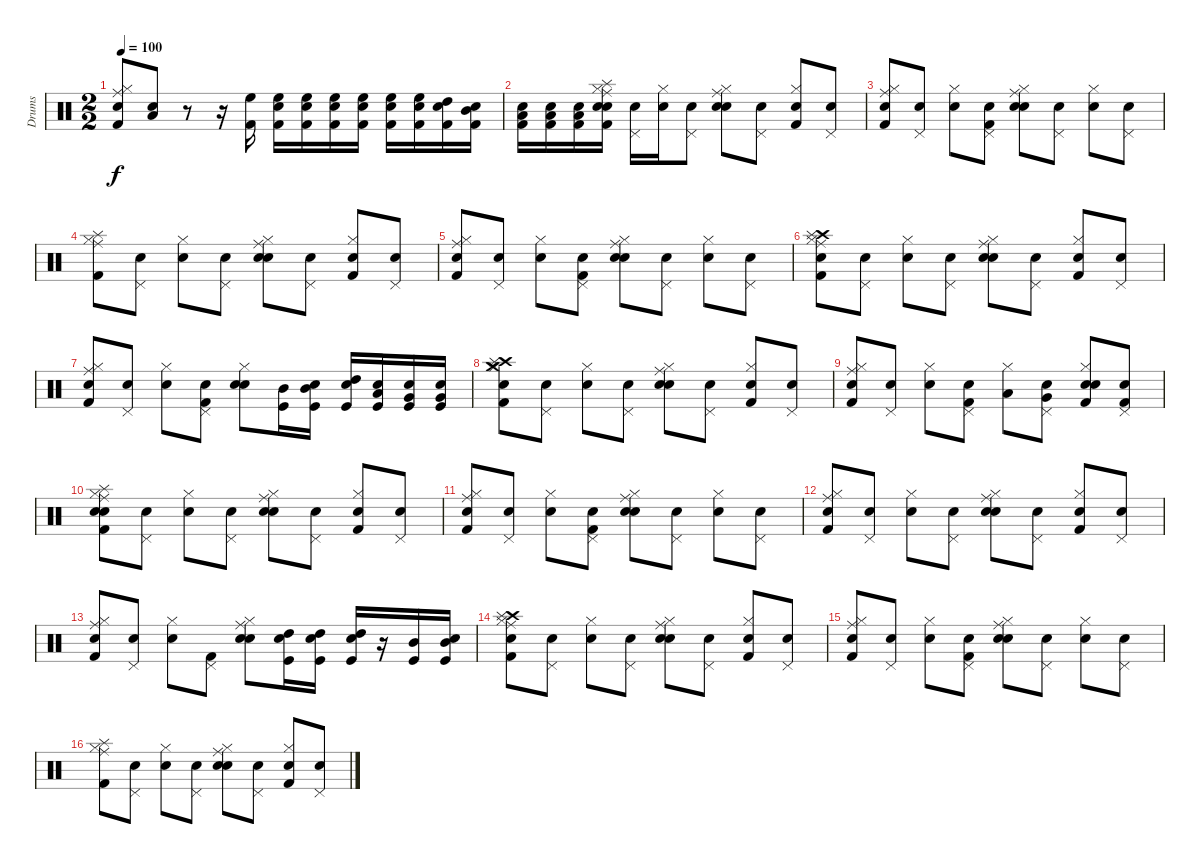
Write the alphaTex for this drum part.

\track ("Drums" "Drums") {instrument percussion}
\staff {score}
\articulation defaults
\ts (2 2)
\tempo 100
\clef neutral
\ks c
("Snare (hit)" "Ride (middle)" "Hi-Hat (closed)" "Kick (hit) 2").8{dy f} ("Snare (hit)" "Low Tom (hit)").8 r.8 r.16 ("Kick (hit) 2" "High Floor Tom (hit)").16 ("Snare (hit)" "Kick (hit) 2" "High Floor Tom (hit)").16 ("Snare (hit)" "Kick (hit) 2" "High Floor Tom (hit)").16 ("Snare (hit)" "Kick (hit) 2" "High Floor Tom (hit)").16 ("Snare (hit)" "Kick (hit) 2" "High Floor Tom (hit)").16 ("Snare (hit)" "Kick (hit) 2" "High Floor Tom (hit)").16 ("Snare (hit)" "Kick (hit) 2" "High Floor Tom (hit)").16 ("Snare (hit)" "Kick (hit) 2" "High Tom (hit)").16 ("Snare (hit)" "Kick (hit) 2" "Mid Tom (hit)").16 |
("Snare (hit)" "Kick (hit) 2" "Low Tom (hit)").16 ("Snare (hit)" "Kick (hit) 2" "Low Tom (hit)").16 ("Snare (hit)" "Low Floor Tom (hit)" "Kick (hit) 2").16 ("Snare (hit)" "Ride (middle)" "Hi-Hat (closed)" "Kick (hit) 2" "Snare (hit) 2" "Splash (hit)").16 ("Snare (hit)" "Pedal Hi-Hat (hit)").16 ("Snare (hit)" "Hi-Hat (closed)").16 ("Snare (hit)" "Pedal Hi-Hat (hit)").8 ("Snare (hit)" "Ride (middle)" "Hi-Hat (closed)" "Snare (hit) 2").8 ("Snare (hit)" "Pedal Hi-Hat (hit)").8 ("Snare (hit)" "Hi-Hat (closed)" "Kick (hit) 2").8 ("Snare (hit)" "Pedal Hi-Hat (hit)").8 |
("Snare (hit)" "Ride (middle)" "Hi-Hat (closed)" "Kick (hit) 2").8 ("Snare (hit)" "Pedal Hi-Hat (hit)").8 ("Snare (hit)" "Hi-Hat (closed)").8 ("Snare (hit)" "Pedal Hi-Hat (hit)" "Kick (hit) 2").8 ("Snare (hit)" "Ride (middle)" "Hi-Hat (closed)" "Snare (hit) 2").8 ("Snare (hit)" "Pedal Hi-Hat (hit)").8 ("Snare (hit)" "Hi-Hat (closed)").8 ("Snare (hit)" "Pedal Hi-Hat (hit)").8 |
("Splash (hit)" "Kick (hit) 2" "Ride (middle)" "Hi-Hat (closed)").8 ("Snare (hit)" "Pedal Hi-Hat (hit)").8 ("Snare (hit)" "Hi-Hat (closed)").8 ("Snare (hit)" "Pedal Hi-Hat (hit)").8 ("Snare (hit)" "Ride (middle)" "Hi-Hat (closed)" "Snare (hit) 2").8 ("Snare (hit)" "Pedal Hi-Hat (hit)").8 ("Snare (hit)" "Hi-Hat (closed)" "Kick (hit) 2").8 ("Snare (hit)" "Pedal Hi-Hat (hit)").8 |
("Snare (hit)" "Ride (middle)" "Hi-Hat (closed)" "Kick (hit) 2").8 ("Snare (hit)" "Pedal Hi-Hat (hit)").8 ("Snare (hit)" "Hi-Hat (closed)").8 ("Snare (hit)" "Pedal Hi-Hat (hit)" "Kick (hit) 2").8 ("Snare (hit)" "Ride (middle)" "Hi-Hat (closed)" "Snare (hit) 2").8 ("Snare (hit)" "Pedal Hi-Hat (hit)").8 ("Snare (hit)" "Hi-Hat (closed)").8 ("Snare (hit)" "Pedal Hi-Hat (hit)").8 |
("Snare (hit)" "Hi-Hat (closed)" "Ride (middle)" "Kick (hit) 2" "Crash high (hit)" "Splash (hit)").8 ("Snare (hit)" "Pedal Hi-Hat (hit)").8 ("Snare (hit)" "Hi-Hat (closed)").8 ("Snare (hit)" "Pedal Hi-Hat (hit)").8 ("Snare (hit)" "Ride (middle)" "Hi-Hat (closed)" "Snare (hit) 2").8 ("Snare (hit)" "Pedal Hi-Hat (hit)").8 ("Snare (hit)" "Hi-Hat (closed)" "Kick (hit) 2").8 ("Snare (hit)" "Pedal Hi-Hat (hit)").8 |
("Snare (hit)" "Ride (middle)" "Hi-Hat (closed)" "Kick (hit) 2").8 ("Snare (hit)" "Pedal Hi-Hat (hit)").8 ("Snare (hit)" "Hi-Hat (closed)").8 ("Snare (hit)" "Pedal Hi-Hat (hit)" "Kick (hit) 2").8 ("Snare (hit)" "Hi-Hat (closed)" "Snare (hit) 2").8 ("Kick (hit)" "Mid Tom (hit)").16 ("Snare (hit)" "Kick (hit)" "Mid Tom (hit)").16 ("Snare (hit)" "Kick (hit)" "High Tom (hit)").16 ("Snare (hit)" "Kick (hit)" "Low Tom (hit)").16 ("Snare (hit)" "Very Low Tom (hit)" "Kick (hit)").16 ("Snare (hit)" "Very Low Tom (hit)" "Kick (hit)").16 |
("Snare (hit)" "Crash medium (hit)" "Crash high (hit)" "Splash (hit)" "Kick (hit) 2" "Hi-Hat (closed)").8 ("Snare (hit)" "Pedal Hi-Hat (hit)").8 ("Snare (hit)" "Hi-Hat (closed)").8 ("Snare (hit)" "Pedal Hi-Hat (hit)").8 ("Snare (hit)" "Ride (middle)" "Hi-Hat (closed)" "Snare (hit) 2").8 ("Snare (hit)" "Pedal Hi-Hat (hit)").8 ("Snare (hit)" "Hi-Hat (closed)" "Kick (hit) 2").8 ("Snare (hit)" "Pedal Hi-Hat (hit)").8 |
("Snare (hit)" "Ride (middle)" "Hi-Hat (closed)" "Kick (hit) 2").8 ("Snare (hit)" "Pedal Hi-Hat (hit)").8 ("Snare (hit)" "Hi-Hat (closed)").8 ("Snare (hit)" "Pedal Hi-Hat (hit)" "Kick (hit) 2").8 ("Hi-Hat (closed)" "Low Tom (hit)").8 ("Snare (hit)" "Pedal Hi-Hat (hit)" "Very Low Tom (hit)").8 ("Snare (hit)" "Hi-Hat (closed)" "Snare (hit) 2" "Kick (hit) 2").8 ("Pedal Hi-Hat (hit)" "Snare (hit) 2" "Kick (hit) 2").8 |
("Snare (hit)" "Ride (middle)" "Hi-Hat (closed)" "Kick (hit) 2" "Snare (hit) 2" "Splash (hit)").8 ("Snare (hit)" "Pedal Hi-Hat (hit)").8 ("Snare (hit)" "Hi-Hat (closed)").8 ("Snare (hit)" "Pedal Hi-Hat (hit)").8 ("Snare (hit)" "Ride (middle)" "Hi-Hat (closed)" "Snare (hit) 2").8 ("Snare (hit)" "Pedal Hi-Hat (hit)").8 ("Snare (hit)" "Hi-Hat (closed)" "Kick (hit) 2").8 ("Snare (hit)" "Pedal Hi-Hat (hit)").8 |
("Snare (hit)" "Ride (middle)" "Hi-Hat (closed)" "Kick (hit) 2").8 ("Snare (hit)" "Pedal Hi-Hat (hit)").8 ("Snare (hit)" "Hi-Hat (closed)").8 ("Snare (hit)" "Pedal Hi-Hat (hit)" "Kick (hit) 2").8 ("Snare (hit)" "Ride (middle)" "Hi-Hat (closed)" "Snare (hit) 2").8 ("Snare (hit)" "Pedal Hi-Hat (hit)").8 ("Snare (hit)" "Hi-Hat (closed)").8 ("Snare (hit)" "Pedal Hi-Hat (hit)").8 |
("Snare (hit)" "Kick (hit) 2" "Ride (middle)" "Hi-Hat (closed)").8 ("Snare (hit)" "Pedal Hi-Hat (hit)").8 ("Snare (hit)" "Hi-Hat (closed)").8 ("Snare (hit)" "Pedal Hi-Hat (hit)").8 ("Snare (hit)" "Ride (middle)" "Hi-Hat (closed)" "Snare (hit) 2").8 ("Snare (hit)" "Pedal Hi-Hat (hit)").8 ("Snare (hit)" "Hi-Hat (closed)" "Kick (hit) 2").8 ("Snare (hit)" "Pedal Hi-Hat (hit)").8 |
("Snare (hit)" "Ride (middle)" "Hi-Hat (closed)" "Kick (hit) 2").8 ("Snare (hit)" "Pedal Hi-Hat (hit)").8 ("Snare (hit)" "Hi-Hat (closed)").8 ("Kick (hit) 2" "Pedal Hi-Hat (hit)").8 ("Snare (hit)" "Snare (hit) 2" "Ride (middle)" "Hi-Hat (closed)").8 ("Snare (hit)" "Kick (hit)" "High Tom (hit)").16 ("Snare (hit)" "Kick (hit)" "High Tom (hit)").16 ("Snare (hit)" "Kick (hit)" "High Tom (hit)").16 r.16 ("Kick (hit)" "Mid Tom (hit)").16 ("Snare (hit)" "Kick (hit)" "Mid Tom (hit)").16 |
("Snare (hit)" "Hi-Hat (closed)" "Ride (middle)" "Kick (hit) 2" "Crash high (hit)" "Splash (hit)").8 ("Snare (hit)" "Pedal Hi-Hat (hit)").8 ("Snare (hit)" "Hi-Hat (closed)").8 ("Snare (hit)" "Pedal Hi-Hat (hit)").8 ("Snare (hit)" "Ride (middle)" "Hi-Hat (closed)" "Snare (hit) 2").8 ("Snare (hit)" "Pedal Hi-Hat (hit)").8 ("Snare (hit)" "Hi-Hat (closed)" "Kick (hit) 2").8 ("Snare (hit)" "Pedal Hi-Hat (hit)").8 |
("Snare (hit)" "Ride (middle)" "Hi-Hat (closed)" "Kick (hit) 2").8 ("Snare (hit)" "Pedal Hi-Hat (hit)").8 ("Snare (hit)" "Hi-Hat (closed)").8 ("Snare (hit)" "Pedal Hi-Hat (hit)" "Kick (hit) 2").8 ("Snare (hit)" "Ride (middle)" "Hi-Hat (closed)" "Snare (hit) 2").8 ("Snare (hit)" "Pedal Hi-Hat (hit)").8 ("Snare (hit)" "Hi-Hat (closed)").8 ("Snare (hit)" "Pedal Hi-Hat (hit)").8 |
("Splash (hit)" "Kick (hit) 2" "Ride (middle)" "Hi-Hat (closed)").8 ("Snare (hit)" "Pedal Hi-Hat (hit)").8 ("Snare (hit)" "Hi-Hat (closed)").8 ("Snare (hit)" "Pedal Hi-Hat (hit)").8 ("Snare (hit)" "Ride (middle)" "Hi-Hat (closed)" "Snare (hit) 2").8 ("Snare (hit)" "Pedal Hi-Hat (hit)").8 ("Snare (hit)" "Hi-Hat (closed)" "Kick (hit) 2").8 ("Snare (hit)" "Pedal Hi-Hat (hit)").8
